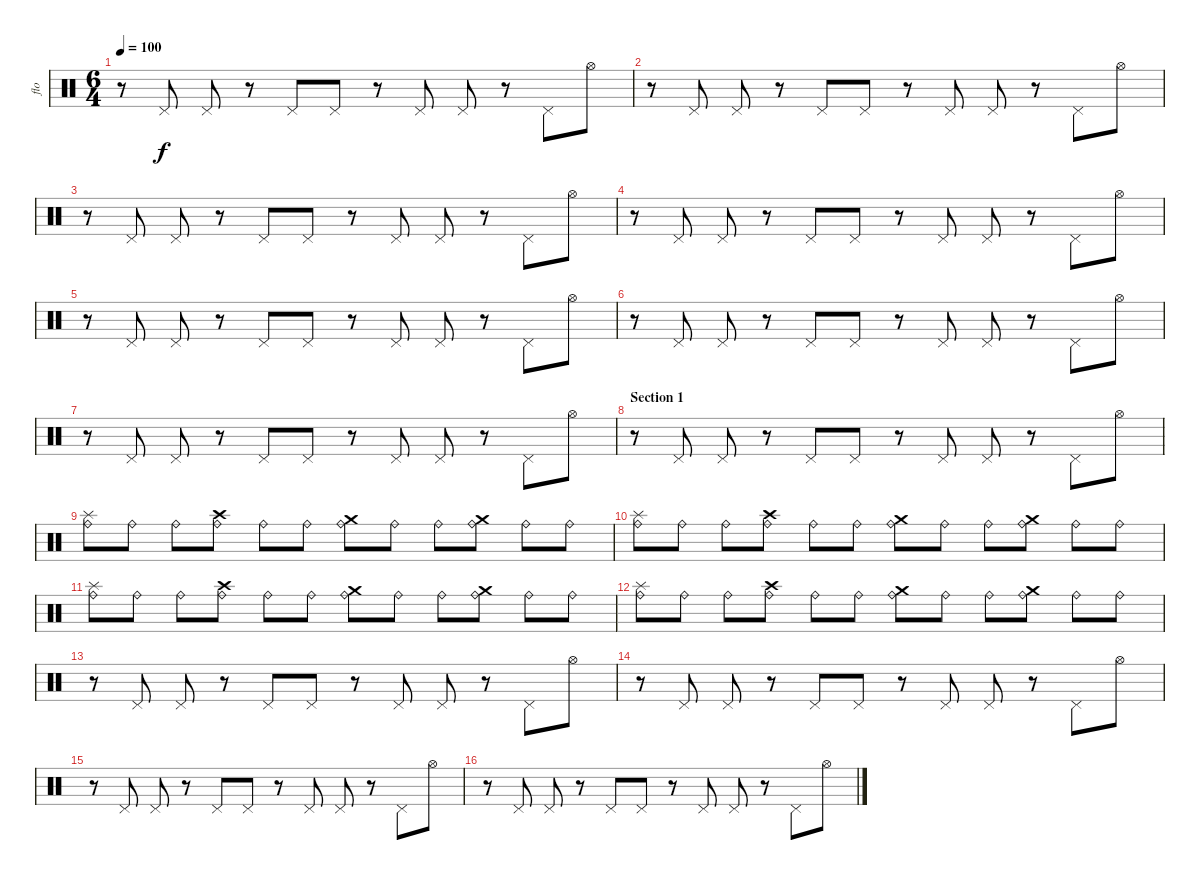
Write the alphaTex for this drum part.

\track ("flo" "flo") {instrument percussion}
\staff {score}
\articulation defaults
\ts (6 4)
\tempo 100
\clef neutral
\ks c
r.8{dy f} "Pedal Hi-Hat (hit)".8 "Pedal Hi-Hat (hit)".8 r.8 "Pedal Hi-Hat (hit)".8 "Pedal Hi-Hat (hit)".8 r.8 "Pedal Hi-Hat (hit)".8 "Pedal Hi-Hat (hit)".8 r.8 "Pedal Hi-Hat (hit)".8 "Hi-Hat (open)".8 |
r.8 "Pedal Hi-Hat (hit)".8 "Pedal Hi-Hat (hit)".8 r.8 "Pedal Hi-Hat (hit)".8 "Pedal Hi-Hat (hit)".8 r.8 "Pedal Hi-Hat (hit)".8 "Pedal Hi-Hat (hit)".8 r.8 "Pedal Hi-Hat (hit)".8 "Hi-Hat (open)".8 |
r.8 "Pedal Hi-Hat (hit)".8 "Pedal Hi-Hat (hit)".8 r.8 "Pedal Hi-Hat (hit)".8 "Pedal Hi-Hat (hit)".8 r.8 "Pedal Hi-Hat (hit)".8 "Pedal Hi-Hat (hit)".8 r.8 "Pedal Hi-Hat (hit)".8 "Hi-Hat (open)".8 |
r.8 "Pedal Hi-Hat (hit)".8 "Pedal Hi-Hat (hit)".8 r.8 "Pedal Hi-Hat (hit)".8 "Pedal Hi-Hat (hit)".8 r.8 "Pedal Hi-Hat (hit)".8 "Pedal Hi-Hat (hit)".8 r.8 "Pedal Hi-Hat (hit)".8 "Hi-Hat (open)".8 |
r.8 "Pedal Hi-Hat (hit)".8 "Pedal Hi-Hat (hit)".8 r.8 "Pedal Hi-Hat (hit)".8 "Pedal Hi-Hat (hit)".8 r.8 "Pedal Hi-Hat (hit)".8 "Pedal Hi-Hat (hit)".8 r.8 "Pedal Hi-Hat (hit)".8 "Hi-Hat (open)".8 |
r.8 "Pedal Hi-Hat (hit)".8 "Pedal Hi-Hat (hit)".8 r.8 "Pedal Hi-Hat (hit)".8 "Pedal Hi-Hat (hit)".8 r.8 "Pedal Hi-Hat (hit)".8 "Pedal Hi-Hat (hit)".8 r.8 "Pedal Hi-Hat (hit)".8 "Hi-Hat (open)".8 |
r.8 "Pedal Hi-Hat (hit)".8 "Pedal Hi-Hat (hit)".8 r.8 "Pedal Hi-Hat (hit)".8 "Pedal Hi-Hat (hit)".8 r.8 "Pedal Hi-Hat (hit)".8 "Pedal Hi-Hat (hit)".8 r.8 "Pedal Hi-Hat (hit)".8 "Hi-Hat (open)".8 |
\section ("" "Section 1")
r.8 "Pedal Hi-Hat (hit)".8 "Pedal Hi-Hat (hit)".8 r.8 "Pedal Hi-Hat (hit)".8 "Pedal Hi-Hat (hit)".8 r.8 "Pedal Hi-Hat (hit)".8 "Pedal Hi-Hat (hit)".8 r.8 "Pedal Hi-Hat (hit)".8 "Hi-Hat (open)".8 |
("Splash (hit)" "Ride (bell)").8 "Ride (bell)".8 "Ride (bell)".8 ("Crash high (hit)" "Ride (bell)").8 "Ride (bell)".8 "Ride (bell)".8 ("Crash medium (hit)" "Ride (bell)").8 "Ride (bell)".8 "Ride (bell)".8 ("Crash medium (hit)" "Ride (bell)").8 "Ride (bell)".8 "Ride (bell)".8 |
("Splash (hit)" "Ride (bell)").8 "Ride (bell)".8 "Ride (bell)".8 ("Crash high (hit)" "Ride (bell)").8 "Ride (bell)".8 "Ride (bell)".8 ("Crash medium (hit)" "Ride (bell)").8 "Ride (bell)".8 "Ride (bell)".8 ("Crash medium (hit)" "Ride (bell)").8 "Ride (bell)".8 "Ride (bell)".8 |
("Splash (hit)" "Ride (bell)").8 "Ride (bell)".8 "Ride (bell)".8 ("Crash high (hit)" "Ride (bell)").8 "Ride (bell)".8 "Ride (bell)".8 ("Crash medium (hit)" "Ride (bell)").8 "Ride (bell)".8 "Ride (bell)".8 ("Crash medium (hit)" "Ride (bell)").8 "Ride (bell)".8 "Ride (bell)".8 |
("Splash (hit)" "Ride (bell)").8 "Ride (bell)".8 "Ride (bell)".8 ("Crash high (hit)" "Ride (bell)").8 "Ride (bell)".8 "Ride (bell)".8 ("Crash medium (hit)" "Ride (bell)").8 "Ride (bell)".8 "Ride (bell)".8 ("Crash medium (hit)" "Ride (bell)").8 "Ride (bell)".8 "Ride (bell)".8 |
r.8 "Pedal Hi-Hat (hit)".8 "Pedal Hi-Hat (hit)".8 r.8 "Pedal Hi-Hat (hit)".8 "Pedal Hi-Hat (hit)".8 r.8 "Pedal Hi-Hat (hit)".8 "Pedal Hi-Hat (hit)".8 r.8 "Pedal Hi-Hat (hit)".8 "Hi-Hat (open)".8 |
r.8 "Pedal Hi-Hat (hit)".8 "Pedal Hi-Hat (hit)".8 r.8 "Pedal Hi-Hat (hit)".8 "Pedal Hi-Hat (hit)".8 r.8 "Pedal Hi-Hat (hit)".8 "Pedal Hi-Hat (hit)".8 r.8 "Pedal Hi-Hat (hit)".8 "Hi-Hat (open)".8 |
r.8 "Pedal Hi-Hat (hit)".8 "Pedal Hi-Hat (hit)".8 r.8 "Pedal Hi-Hat (hit)".8 "Pedal Hi-Hat (hit)".8 r.8 "Pedal Hi-Hat (hit)".8 "Pedal Hi-Hat (hit)".8 r.8 "Pedal Hi-Hat (hit)".8 "Hi-Hat (open)".8 |
r.8 "Pedal Hi-Hat (hit)".8 "Pedal Hi-Hat (hit)".8 r.8 "Pedal Hi-Hat (hit)".8 "Pedal Hi-Hat (hit)".8 r.8 "Pedal Hi-Hat (hit)".8 "Pedal Hi-Hat (hit)".8 r.8 "Pedal Hi-Hat (hit)".8 "Hi-Hat (open)".8
